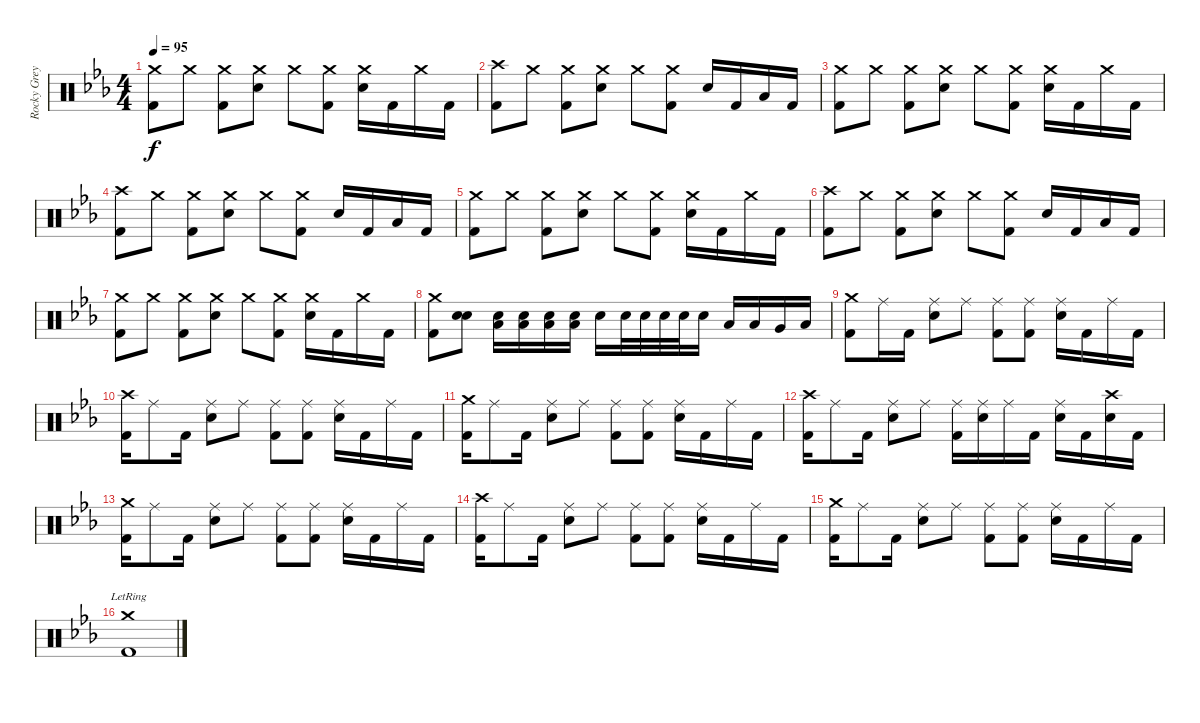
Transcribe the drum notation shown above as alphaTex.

\track ("Rocky Grey" "Rocky Grey") {instrument percussion}
\staff {score}
\articulation defaults
\ts (4 4)
\tempo 95
\clef neutral
\ks eb
("Crash medium (hit)" "Kick (hit) 2").8{dy f} "Crash medium (hit)".8 ("Crash medium (hit)" "Kick (hit) 2").8 ("Crash medium (hit)" "Snare (hit) 2").8 "Crash medium (hit)".8 ("Crash medium (hit)" "Kick (hit) 2").8 ("Crash medium (hit)" "Snare (hit) 2").16 "Kick (hit) 2".16 "Crash medium (hit)".16 "Kick (hit) 2".16 |
("Crash high (hit)" "Kick (hit) 2").8 "Crash medium (hit)".8 ("Crash medium (hit)" "Kick (hit) 2").8 ("Crash medium (hit)" "Snare (hit) 2").8 "Crash medium (hit)".8 ("Crash medium (hit)" "Kick (hit) 2").8 "Snare (hit) 2".16 "Kick (hit) 2".16 "Low Floor Tom (hit)".16 "Kick (hit) 2".16 |
("Crash medium (hit)" "Kick (hit) 2").8 "Crash medium (hit)".8 ("Crash medium (hit)" "Kick (hit) 2").8 ("Crash medium (hit)" "Snare (hit) 2").8 "Crash medium (hit)".8 ("Crash medium (hit)" "Kick (hit) 2").8 ("Crash medium (hit)" "Snare (hit) 2").16 "Kick (hit) 2".16 "Crash medium (hit)".16 "Kick (hit) 2".16 |
("Crash high (hit)" "Kick (hit) 2").8 "Crash medium (hit)".8 ("Crash medium (hit)" "Kick (hit) 2").8 ("Crash medium (hit)" "Snare (hit) 2").8 "Crash medium (hit)".8 ("Crash medium (hit)" "Kick (hit) 2").8 "Snare (hit) 2".16 "Kick (hit) 2".16 "Low Floor Tom (hit)".16 "Kick (hit) 2".16 |
("Crash medium (hit)" "Kick (hit) 2").8 "Crash medium (hit)".8 ("Crash medium (hit)" "Kick (hit) 2").8 ("Crash medium (hit)" "Snare (hit) 2").8 "Crash medium (hit)".8 ("Crash medium (hit)" "Kick (hit) 2").8 ("Crash medium (hit)" "Snare (hit) 2").16 "Kick (hit) 2".16 "Crash medium (hit)".16 "Kick (hit) 2".16 |
("Crash high (hit)" "Kick (hit) 2").8 "Crash medium (hit)".8 ("Crash medium (hit)" "Kick (hit) 2").8 ("Crash medium (hit)" "Snare (hit) 2").8 "Crash medium (hit)".8 ("Crash medium (hit)" "Kick (hit) 2").8 "Snare (hit) 2".16 "Kick (hit) 2".16 "Low Floor Tom (hit)".16 "Kick (hit) 2".16 |
("Crash medium (hit)" "Kick (hit) 2").8 "Crash medium (hit)".8 ("Crash medium (hit)" "Kick (hit) 2").8 ("Crash medium (hit)" "Snare (hit) 2").8 "Crash medium (hit)".8 ("Crash medium (hit)" "Kick (hit) 2").8 ("Crash medium (hit)" "Snare (hit) 2").16 "Kick (hit) 2".16 "Crash medium (hit)".16 "Kick (hit) 2".16 |
("Crash medium (hit)" "Kick (hit) 2").8 ("Snare (hit) 2" "Snare (hit) 2").8 ("Snare (hit) 2" "Low Floor Tom (hit)").16 ("Snare (hit) 2" "Low Floor Tom (hit)").16 ("Snare (hit) 2" "Low Floor Tom (hit)").16 ("Snare (hit) 2" "Low Floor Tom (hit)").16 "Snare (hit) 2".16 "Snare (hit) 2".32 "Snare (hit) 2".32 "Snare (hit) 2".32 "Snare (hit) 2".32 "Snare (hit) 2".16 "Low Tom (hit)".16 "Low Tom (hit)".16 "Very Low Tom (hit)".16 "Low Floor Tom (hit)".16 |
("Crash medium (hit)" "Kick (hit) 2").8 "Ride (middle)".16 "Kick (hit) 2".16 ("Ride (middle)" "Snare (hit) 2").8 "Ride (middle)".8 ("Ride (middle)" "Kick (hit) 2").8 ("Ride (middle)" "Kick (hit) 2").8 ("Ride (middle)" "Snare (hit) 2").16 "Kick (hit) 2".16 "Ride (middle)".16 "Kick (hit) 2".16 |
("Crash high (hit)" "Kick (hit) 2").16 "Ride (middle)".8 "Kick (hit) 2".16 ("Ride (middle)" "Snare (hit) 2").8 "Ride (middle)".8 ("Ride (middle)" "Kick (hit) 2").8 ("Ride (middle)" "Kick (hit) 2").8 ("Ride (middle)" "Snare (hit) 2").16 "Kick (hit) 2".16 "Ride (middle)".16 "Kick (hit) 2".16 |
("Crash medium (hit)" "Kick (hit) 2").16 "Ride (middle)".8 "Kick (hit) 2".16 ("Ride (middle)" "Snare (hit) 2").8 "Ride (middle)".8 ("Ride (middle)" "Kick (hit) 2").8 ("Ride (middle)" "Kick (hit) 2").8 ("Ride (middle)" "Snare (hit) 2").16 "Kick (hit) 2".16 "Ride (middle)".16 "Kick (hit) 2".16 |
("Crash high (hit)" "Kick (hit) 2").16 "Ride (middle)".8 "Kick (hit) 2".16 ("Ride (middle)" "Snare (hit) 2").8 "Ride (middle)".8 ("Ride (middle)" "Kick (hit) 2").16 ("Ride (middle)" "Snare (hit) 2").16 "Ride (middle)".16 "Kick (hit) 2".16 ("Ride (middle)" "Snare (hit) 2").16 "Kick (hit) 2".16 ("Crash high (hit)" "Snare (hit) 2").16 "Kick (hit) 2".16 |
("Crash medium (hit)" "Kick (hit) 2").16 "Ride (middle)".8 "Kick (hit) 2".16 ("Ride (middle)" "Snare (hit) 2").8 "Ride (middle)".8 ("Ride (middle)" "Kick (hit) 2").8 ("Ride (middle)" "Kick (hit) 2").8 ("Ride (middle)" "Snare (hit) 2").16 "Kick (hit) 2".16 "Ride (middle)".16 "Kick (hit) 2".16 |
("Crash high (hit)" "Kick (hit) 2").16 "Ride (middle)".8 "Kick (hit) 2".16 ("Ride (middle)" "Snare (hit) 2").8 "Ride (middle)".8 ("Ride (middle)" "Kick (hit) 2").8 ("Ride (middle)" "Kick (hit) 2").8 ("Ride (middle)" "Snare (hit) 2").16 "Kick (hit) 2".16 "Ride (middle)".16 "Kick (hit) 2".16 |
("Crash medium (hit)" "Kick (hit) 2").16 "Ride (middle)".8 "Kick (hit) 2".16 ("Ride (middle)" "Snare (hit) 2").8 "Ride (middle)".8 ("Ride (middle)" "Kick (hit) 2").8 ("Ride (middle)" "Kick (hit) 2").8 ("Ride (middle)" "Snare (hit) 2").16 "Kick (hit) 2".16 "Ride (middle)".16 "Kick (hit) 2".16 |
("Crash medium (hit)"{lr} "Kick (hit) 2").1
